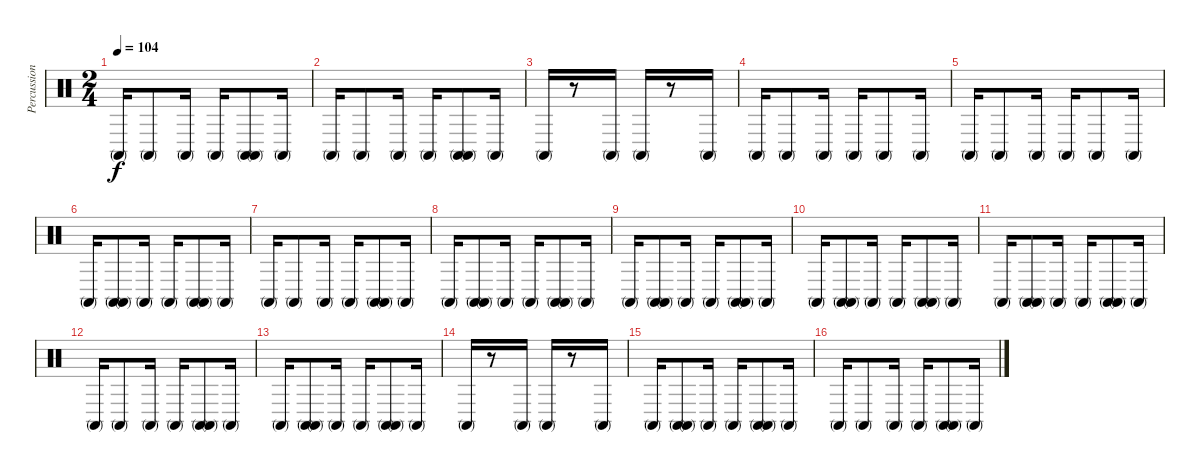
\track ("Percussion" "Percussion") {instrument percussion}
\staff {score}
\articulation defaults
\ts (2 4)
\tempo 104
\clef neutral
\ks c "Conga high (mute)".16{dy f} "Conga high (mute)".8 "Conga high (mute)".16 "Conga high (mute)".16
("Conga high (mute)" "Conga high (mute)").8 "Conga high (mute)".16 |
"Conga high (mute)".16 "Conga high (mute)".8 "Conga high (mute)".16 "Conga high (mute)".16 ("Conga high (mute)" "Conga high (mute)").8 "Conga high (mute)".16 |
"Conga high (mute)".16 r.8 "Conga high (mute)".16 "Conga high (mute)".16 r.8 "Conga high (mute)".16 |
"Conga high (mute)".16 "Conga high (mute)".8 "Conga high (mute)".16 "Conga high (mute)".16 "Conga high (mute)".8 "Conga high (mute)".16 |
"Conga high (mute)".16 "Conga high (mute)".8 "Conga high (mute)".16 "Conga high (mute)".16 "Conga high (mute)".8 "Conga high (mute)".16 |
"Conga high (mute)".16 ("Conga high (mute)" "Conga high (mute)").8 "Conga high (mute)".16 "Conga high (mute)".16 ("Conga high (mute)" "Conga high (mute)").8 "Conga high (mute)".16 |
"Conga high (mute)".16 "Conga high (mute)".8 "Conga high (mute)".16 "Conga high (mute)".16 ("Conga high (mute)" "Conga high (mute)").8 "Conga high (mute)".16 |
"Conga high (mute)".16 ("Conga high (mute)" "Conga high (mute)").8 "Conga high (mute)".16 "Conga high (mute)".16 ("Conga high (mute)" "Conga high (mute)").8 "Conga high (mute)".16 |
"Conga high (mute)".16 ("Conga high (mute)" "Conga high (mute)").8 "Conga high (mute)".16 "Conga high (mute)".16 ("Conga high (mute)" "Conga high (mute)").8 "Conga high (mute)".16 |
"Conga high (mute)".16 ("Conga high (mute)" "Conga high (mute)").8 "Conga high (mute)".16 "Conga high (mute)".16 ("Conga high (mute)" "Conga high (mute)").8 "Conga high (mute)".16 |
"Conga high (mute)".16 ("Conga high (mute)" "Conga high (mute)").8 "Conga high (mute)".16 "Conga high (mute)".16 ("Conga high (mute)" "Conga high (mute)").8 "Conga high (mute)".16 |
"Conga high (mute)".16 "Conga high (mute)".8 "Conga high (mute)".16 "Conga high (mute)".16 ("Conga high (mute)" "Conga high (mute)").8 "Conga high (mute)".16 |
"Conga high (mute)".16 ("Conga high (mute)" "Conga high (mute)").8 "Conga high (mute)".16 "Conga high (mute)".16 ("Conga high (mute)" "Conga high (mute)").8 "Conga high (mute)".16 |
"Conga high (mute)".16 r.8 "Conga high (mute)".16 "Conga high (mute)".16 r.8 "Conga high (mute)".16 |
"Conga high (mute)".16 ("Conga high (mute)" "Conga high (mute)").8 "Conga high (mute)".16 "Conga high (mute)".16 ("Conga high (mute)" "Conga high (mute)").8 "Conga high (mute)".16 |
"Conga high (mute)".16 "Conga high (mute)".8 "Conga high (mute)".16 "Conga high (mute)".16 ("Conga high (mute)" "Conga high (mute)").8 "Conga high (mute)".16
